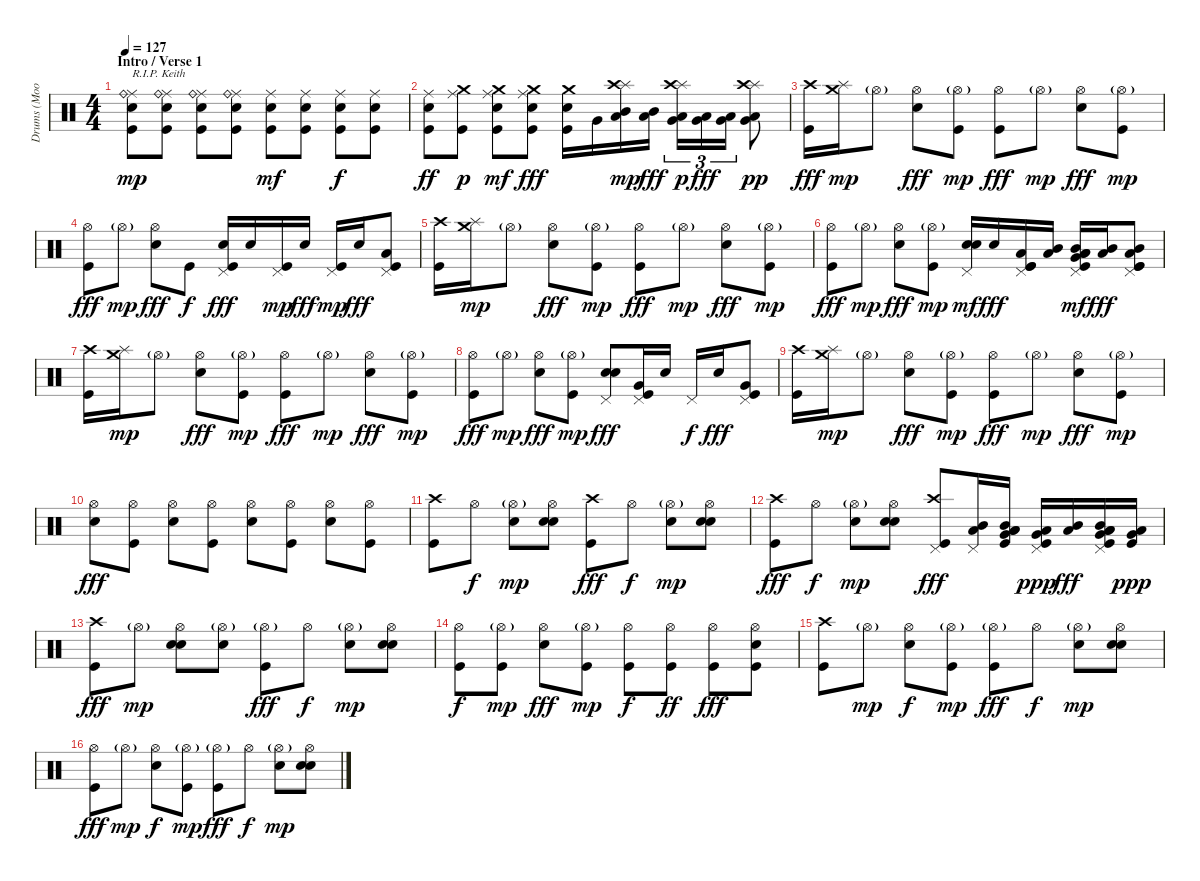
\track ("Drums (Moon)" "Drums (Moo") {instrument percussion}
\staff {score}
\articulation defaults
\ts (4 4)
\section ("" "Intro / Verse 1")
\tempo 127
\clef neutral
\ks c
("Ride (middle)" "Ride (bell)" "Electric Snare (hit)" "Kick (hit)").8{txt "R.I.P. Keith" dy mp volume 16} ("Ride (middle)" "Ride (bell)" "Electric Snare (hit)" "Kick (hit)").8 ("Ride (middle)" "Ride (bell)" "Electric Snare (hit)" "Kick (hit)").8 ("Ride (middle)" "Ride (bell)" "Electric Snare (hit)" "Kick (hit)").8 ("Ride (middle)" "Electric Snare (hit)" "Kick (hit)").8{dy mf} ("Ride (middle)" "Electric Snare (hit)" "Kick (hit)").8 ("Ride (middle)" "Electric Snare (hit)" "Kick (hit)").8{dy f} ("Ride (middle)" "Electric Snare (hit)" "Kick (hit)").8 |
("Ride (middle)" "Electric Snare (hit)" "Kick (hit)").8{dy ff} ("Ride (middle)" "Crash medium (hit)" "Kick (hit)").8{dy p} ("Ride (middle)" "Crash medium (hit)" "Electric Snare (hit)" "Kick (hit)").8{dy mf} ("Ride (middle)" "Crash medium (hit)" "Electric Snare (hit)" "Kick (hit)").8{dy fff} ("Crash medium (hit)" "Snare (hit) 2" "Kick (hit)").16 "Very Low Tom (hit)".16 ("Mid Tom (hit)" "Low Tom (hit)" "Splash (hit)" "Crash high (hit)").16{dy mp} ("Mid Tom (hit)" "Low Tom (hit)").16{dy fff} ("Low Tom (hit)" "Very Low Tom (hit)" "Splash (hit)" "Crash high (hit)").16{tu (3 2) dy p} ("Low Tom (hit)" "Very Low Tom (hit)").16{tu (3 2) dy fff} ("Low Tom (hit)" "Very Low Tom (hit)").16{tu (3 2)} ("Low Tom (hit)" "Very Low Tom (hit)" "Splash (hit)" "Crash high (hit)").8{dy pp} |
("Crash high (hit)" "Kick (hit)").16{dy fff} ("Splash (hit)" "Crash medium (hit)").16{dy mp} "Hi-Hat (open)"{g}.8 ("Hi-Hat (open)" "Electric Snare (hit)").8{dy fff} ("Hi-Hat (open)"{g} "Kick (hit)").8{dy mp} ("Hi-Hat (open)" "Kick (hit)").8{dy fff} "Hi-Hat (open)"{g}.8{dy mp} ("Hi-Hat (open)" "Electric Snare (hit)").8{dy fff} ("Hi-Hat (open)"{g} "Kick (hit)").8{dy mp} |
("Hi-Hat (open)" "Kick (hit)").8{dy fff} "Hi-Hat (open)"{g}.8{dy mp} ("Hi-Hat (open)" "Electric Snare (hit)").8{dy fff} "Kick (hit)".8{dy f} ("Pedal Hi-Hat (hit)" "Electric Snare (hit)" "Kick (hit)").16{dy fff} "Electric Snare (hit)".16 ("Pedal Hi-Hat (hit)" "Kick (hit)").16{dy mp} "Electric Snare (hit)".16{dy fff} ("Pedal Hi-Hat (hit)" "Kick (hit)").16{dy mp} "Electric Snare (hit)".16{dy fff} ("Pedal Hi-Hat (hit)" "Low Floor Tom (hit)" "Kick (hit)").8 |
("Crash high (hit)" "Kick (hit)").16 ("Splash (hit)" "Crash medium (hit)").16{dy mp} "Hi-Hat (open)"{g}.8 ("Hi-Hat (open)" "Electric Snare (hit)").8{dy fff} ("Hi-Hat (open)"{g} "Kick (hit)").8{dy mp} ("Hi-Hat (open)" "Kick (hit)").8{dy fff} "Hi-Hat (open)"{g}.8{dy mp} ("Hi-Hat (open)" "Electric Snare (hit)").8{dy fff} ("Hi-Hat (open)"{g} "Kick (hit)").8{dy mp} |
("Hi-Hat (open)" "Kick (hit)").8{dy fff} "Hi-Hat (open)"{g}.8{dy mp} ("Hi-Hat (open)" "Electric Snare (hit)").8{dy fff} ("Hi-Hat (open)"{g} "Kick (hit)").8{dy mp} ("Pedal Hi-Hat (hit)" "Electric Snare (hit)" "Snare (hit) 2").16{dy mf} "Electric Snare (hit)".16{dy fff} ("Pedal Hi-Hat (hit)" "Kick (hit)" "Low Floor Tom (hit)" "Kick (hit)").16 ("Mid Tom (hit)" "Low Tom (hit)").16 ("Pedal Hi-Hat (hit)" "Mid Tom (hit)" "Low Tom (hit)" "Very Low Tom (hit)" "Low Floor Tom (hit)" "Kick (hit)").16{dy mf} ("Mid Tom (hit)" "Low Tom (hit)").16{dy fff} ("Pedal Hi-Hat (hit)" "Mid Tom (hit)" "Low Tom (hit)" "Kick (hit)" "Kick (hit)").8 |
("Crash high (hit)" "Kick (hit)").16 ("Splash (hit)" "Crash medium (hit)").16{dy mp} "Hi-Hat (open)"{g}.8 ("Hi-Hat (open)" "Electric Snare (hit)").8{dy fff} ("Hi-Hat (open)"{g} "Kick (hit)").8{dy mp} ("Hi-Hat (open)" "Kick (hit)").8{dy fff} "Hi-Hat (open)"{g}.8{dy mp} ("Hi-Hat (open)" "Electric Snare (hit)").8{dy fff} ("Hi-Hat (open)"{g} "Kick (hit)").8{dy mp} |
("Hi-Hat (open)" "Kick (hit)").8{dy fff} "Hi-Hat (open)"{g}.8{dy mp} ("Hi-Hat (open)" "Electric Snare (hit)").8{dy fff} ("Hi-Hat (open)"{g} "Kick (hit)").8{dy mp} ("Pedal Hi-Hat (hit)" "Electric Snare (hit)" "Snare (hit) 2").8{dy fff} ("Pedal Hi-Hat (hit)" "Very Low Tom (hit)" "Kick (hit)").16 "Electric Snare (hit)".16 "Pedal Hi-Hat (hit)".16{dy f} "Electric Snare (hit)".16{dy fff} ("Pedal Hi-Hat (hit)" "Very Low Tom (hit)" "Kick (hit)").8 |
("Crash high (hit)" "Kick (hit)").16 ("Splash (hit)" "Crash medium (hit)").16{dy mp} "Hi-Hat (open)"{g}.8 ("Hi-Hat (open)" "Electric Snare (hit)").8{dy fff} ("Hi-Hat (open)"{g} "Kick (hit)").8{dy mp} ("Hi-Hat (open)" "Kick (hit)").8{dy fff} "Hi-Hat (open)"{g}.8{dy mp} ("Hi-Hat (open)" "Electric Snare (hit)").8{dy fff} ("Hi-Hat (open)"{g} "Kick (hit)").8{dy mp} |
("Hi-Hat (open)" "Electric Snare (hit)").8{dy fff} ("Hi-Hat (open)" "Kick (hit)").8 ("Hi-Hat (open)" "Electric Snare (hit)").8 ("Hi-Hat (open)" "Kick (hit)").8 ("Hi-Hat (open)" "Electric Snare (hit)").8 ("Hi-Hat (open)" "Kick (hit)").8 ("Hi-Hat (open)" "Electric Snare (hit)").8 ("Hi-Hat (open)" "Kick (hit)").8 |
("Crash high (hit)" "Kick (hit)").8 "Hi-Hat (open)".8{dy f} ("Hi-Hat (open)"{g} "Electric Snare (hit)").8{dy mp} ("Hi-Hat (open)" "Electric Snare (hit)" "Snare (hit) 2").8 ("Crash high (hit)" "Kick (hit)").8{dy fff} "Hi-Hat (open)".8{dy f} ("Hi-Hat (open)"{g} "Electric Snare (hit)").8{dy mp} ("Hi-Hat (open)" "Electric Snare (hit)" "Snare (hit) 2").8 |
("Crash high (hit)" "Kick (hit)").8{dy fff} "Hi-Hat (open)".8{dy f} ("Hi-Hat (open)"{g} "Electric Snare (hit)").8{dy mp} ("Hi-Hat (open)" "Electric Snare (hit)" "Snare (hit) 2").8 ("Crash high (hit)" "Pedal Hi-Hat (hit)" "Kick (hit)").8{dy fff} ("Pedal Hi-Hat (hit)" "Mid Tom (hit)" "Low Tom (hit)").16 ("Mid Tom (hit)" "Low Tom (hit)" "Low Tom (hit)" "Very Low Tom (hit)" "Kick (hit)").16 ("Pedal Hi-Hat (hit)" "Low Tom (hit)" "Very Low Tom (hit)" "Kick (hit)").16{dy ppp} ("Mid Tom (hit)" "Low Tom (hit)").16{dy fff} ("Pedal Hi-Hat (hit)" "Low Tom (hit)" "Mid Tom (hit)" "Low Tom (hit)" "Very Low Tom (hit)" "Kick (hit)").16 ("Low Tom (hit)" "Very Low Tom (hit)" "Kick (hit)").16{dy ppp} |
("Crash high (hit)" "Kick (hit)").8{dy fff} "Hi-Hat (open)"{g}.8{dy mp} ("Hi-Hat (open)" "Electric Snare (hit)" "Snare (hit) 2").8 ("Hi-Hat (open)"{g} "Electric Snare (hit)").8 ("Hi-Hat (open)"{g} "Kick (hit)").8{dy fff} "Hi-Hat (open)".8{dy f} ("Hi-Hat (open)"{g} "Electric Snare (hit)").8{dy mp} ("Hi-Hat (open)" "Electric Snare (hit)" "Snare (hit) 2").8 |
("Hi-Hat (open)" "Kick (hit)").8{dy f} ("Hi-Hat (open)"{g} "Kick (hit)").8{dy mp} ("Hi-Hat (open)" "Electric Snare (hit)").8{dy fff} ("Hi-Hat (open)"{g} "Kick (hit)").8{dy mp} ("Hi-Hat (open)" "Kick (hit)").8{dy f} ("Hi-Hat (open)" "Kick (hit)").8{dy ff} ("Hi-Hat (open)" "Kick (hit)").8{dy fff} ("Hi-Hat (open)" "Electric Snare (hit)" "Kick (hit)").8 |
("Crash high (hit)" "Kick (hit)").8 "Hi-Hat (open)"{g}.8{dy mp} ("Hi-Hat (open)" "Electric Snare (hit)").8{dy f} ("Hi-Hat (open)"{g} "Kick (hit)").8{dy mp} ("Hi-Hat (open)"{g} "Kick (hit)").8{dy fff} "Hi-Hat (open)".8{dy f} ("Hi-Hat (open)"{g} "Electric Snare (hit)").8{dy mp} ("Hi-Hat (open)" "Electric Snare (hit)" "Snare (hit) 2").8 |
("Hi-Hat (open)" "Kick (hit)").8{dy fff} "Hi-Hat (open)"{g}.8{dy mp} ("Hi-Hat (open)" "Electric Snare (hit)").8{dy f} ("Hi-Hat (open)"{g} "Kick (hit)").8{dy mp} ("Hi-Hat (open)"{g} "Kick (hit)").8{dy fff} "Hi-Hat (open)".8{dy f} ("Hi-Hat (open)"{g} "Electric Snare (hit)").8{dy mp} ("Hi-Hat (open)" "Electric Snare (hit)" "Snare (hit) 2").8
